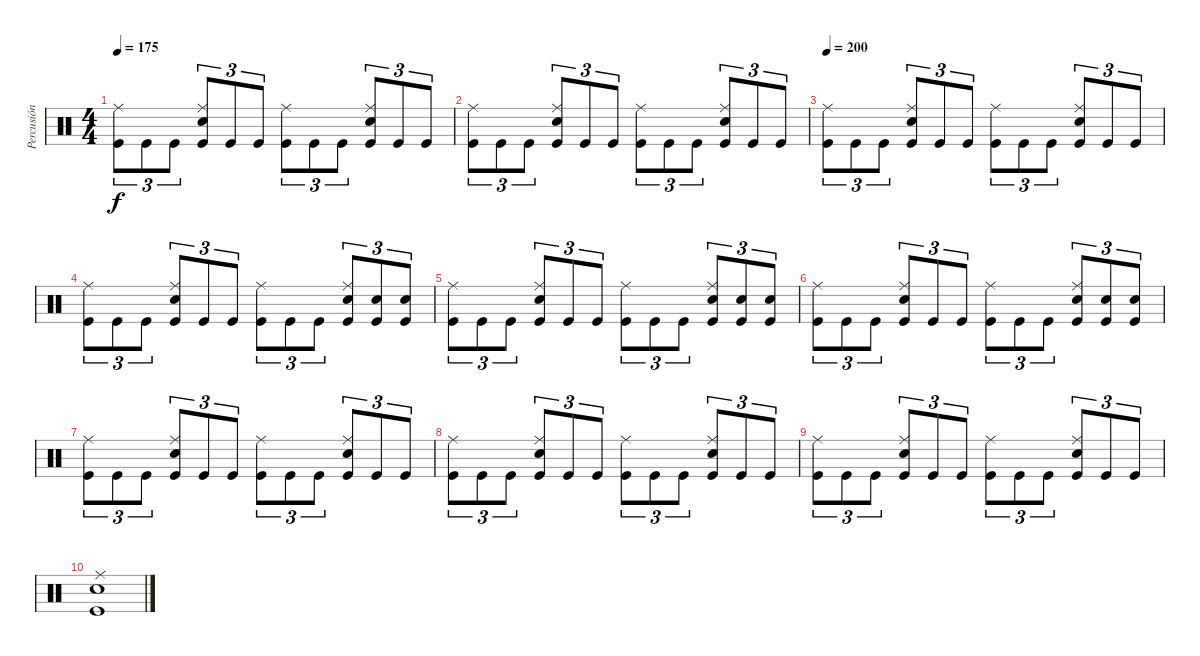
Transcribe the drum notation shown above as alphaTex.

\track ("Percusión" "Percusión") {instrument percussion}
\staff {score}
\articulation defaults
\ts (4 4)
\tempo 175
\clef neutral
\ks c
("Kick (hit)" "Ride (middle)").8{tu (3 2) dy f} "Kick (hit)".8{tu (3 2)} "Kick (hit)".8{tu (3 2)} ("Kick (hit)" "Electric Snare (hit)" "Ride (middle)").8{tu (3 2)} "Kick (hit)".8{tu (3 2)} "Kick (hit)".8{tu (3 2)} ("Kick (hit)" "Ride (middle)").8{tu (3 2)} "Kick (hit)".8{tu (3 2)} "Kick (hit)".8{tu (3 2)} ("Kick (hit)" "Electric Snare (hit)" "Ride (middle)").8{tu (3 2)} "Kick (hit)".8{tu (3 2)} "Kick (hit)".8{tu (3 2)} |
("Kick (hit)" "Ride (middle)").8{tu (3 2)} "Kick (hit)".8{tu (3 2)} "Kick (hit)".8{tu (3 2)} ("Kick (hit)" "Electric Snare (hit)" "Ride (middle)").8{tu (3 2)} "Kick (hit)".8{tu (3 2)} "Kick (hit)".8{tu (3 2)} ("Kick (hit)" "Ride (middle)").8{tu (3 2)} "Kick (hit)".8{tu (3 2)} "Kick (hit)".8{tu (3 2)} ("Kick (hit)" "Electric Snare (hit)" "Ride (middle)").8{tu (3 2)} "Kick (hit)".8{tu (3 2)} "Kick (hit)".8{tu (3 2)} |
\tempo 200
("Kick (hit)" "Ride (middle)").8{tu (3 2)} "Kick (hit)".8{tu (3 2)} "Kick (hit)".8{tu (3 2)} ("Kick (hit)" "Electric Snare (hit)" "Ride (middle)").8{tu (3 2)} "Kick (hit)".8{tu (3 2)} "Kick (hit)".8{tu (3 2)} ("Kick (hit)" "Ride (middle)").8{tu (3 2)} "Kick (hit)".8{tu (3 2)} "Kick (hit)".8{tu (3 2)} ("Kick (hit)" "Electric Snare (hit)" "Ride (middle)").8{tu (3 2)} "Kick (hit)".8{tu (3 2)} "Kick (hit)".8{tu (3 2)} |
("Kick (hit)" "Ride (middle)").8{tu (3 2)} "Kick (hit)".8{tu (3 2)} "Kick (hit)".8{tu (3 2)} ("Kick (hit)" "Electric Snare (hit)" "Ride (middle)").8{tu (3 2)} "Kick (hit)".8{tu (3 2)} "Kick (hit)".8{tu (3 2)} ("Kick (hit)" "Ride (middle)").8{tu (3 2)} "Kick (hit)".8{tu (3 2)} "Kick (hit)".8{tu (3 2)} ("Kick (hit)" "Electric Snare (hit)" "Ride (middle)").8{tu (3 2)} ("Kick (hit)" "Electric Snare (hit)").8{tu (3 2)} ("Kick (hit)" "Electric Snare (hit)").8{tu (3 2)} |
("Kick (hit)" "Ride (middle)").8{tu (3 2)} "Kick (hit)".8{tu (3 2)} "Kick (hit)".8{tu (3 2)} ("Kick (hit)" "Electric Snare (hit)" "Ride (middle)").8{tu (3 2)} "Kick (hit)".8{tu (3 2)} "Kick (hit)".8{tu (3 2)} ("Kick (hit)" "Ride (middle)").8{tu (3 2)} "Kick (hit)".8{tu (3 2)} "Kick (hit)".8{tu (3 2)} ("Kick (hit)" "Electric Snare (hit)" "Ride (middle)").8{tu (3 2)} ("Kick (hit)" "Electric Snare (hit)").8{tu (3 2)} ("Kick (hit)" "Electric Snare (hit)").8{tu (3 2)} |
("Kick (hit)" "Ride (middle)").8{tu (3 2)} "Kick (hit)".8{tu (3 2)} "Kick (hit)".8{tu (3 2)} ("Kick (hit)" "Electric Snare (hit)" "Ride (middle)").8{tu (3 2)} "Kick (hit)".8{tu (3 2)} "Kick (hit)".8{tu (3 2)} ("Kick (hit)" "Ride (middle)").8{tu (3 2)} "Kick (hit)".8{tu (3 2)} "Kick (hit)".8{tu (3 2)} ("Kick (hit)" "Electric Snare (hit)" "Ride (middle)").8{tu (3 2)} ("Kick (hit)" "Electric Snare (hit)").8{tu (3 2)} ("Kick (hit)" "Electric Snare (hit)").8{tu (3 2)} |
("Kick (hit)" "Ride (middle)").8{tu (3 2)} "Kick (hit)".8{tu (3 2)} "Kick (hit)".8{tu (3 2)} ("Kick (hit)" "Electric Snare (hit)" "Ride (middle)").8{tu (3 2)} "Kick (hit)".8{tu (3 2)} "Kick (hit)".8{tu (3 2)} ("Kick (hit)" "Ride (middle)").8{tu (3 2)} "Kick (hit)".8{tu (3 2)} "Kick (hit)".8{tu (3 2)} ("Kick (hit)" "Electric Snare (hit)" "Ride (middle)").8{tu (3 2)} "Kick (hit)".8{tu (3 2)} "Kick (hit)".8{tu (3 2)} |
("Kick (hit)" "Ride (middle)").8{tu (3 2)} "Kick (hit)".8{tu (3 2)} "Kick (hit)".8{tu (3 2)} ("Kick (hit)" "Electric Snare (hit)" "Ride (middle)").8{tu (3 2)} "Kick (hit)".8{tu (3 2)} "Kick (hit)".8{tu (3 2)} ("Kick (hit)" "Ride (middle)").8{tu (3 2)} "Kick (hit)".8{tu (3 2)} "Kick (hit)".8{tu (3 2)} ("Kick (hit)" "Electric Snare (hit)" "Ride (middle)").8{tu (3 2)} "Kick (hit)".8{tu (3 2)} "Kick (hit)".8{tu (3 2)} |
("Kick (hit)" "Ride (middle)").8{tu (3 2)} "Kick (hit)".8{tu (3 2)} "Kick (hit)".8{tu (3 2)} ("Kick (hit)" "Electric Snare (hit)" "Ride (middle)").8{tu (3 2)} "Kick (hit)".8{tu (3 2)} "Kick (hit)".8{tu (3 2)} ("Kick (hit)" "Ride (middle)").8{tu (3 2)} "Kick (hit)".8{tu (3 2)} "Kick (hit)".8{tu (3 2)} ("Kick (hit)" "Electric Snare (hit)" "Ride (middle)").8{tu (3 2)} "Kick (hit)".8{tu (3 2)} "Kick (hit)".8{tu (3 2)} |
("Kick (hit)" "Electric Snare (hit)" "Ride (middle)").1
